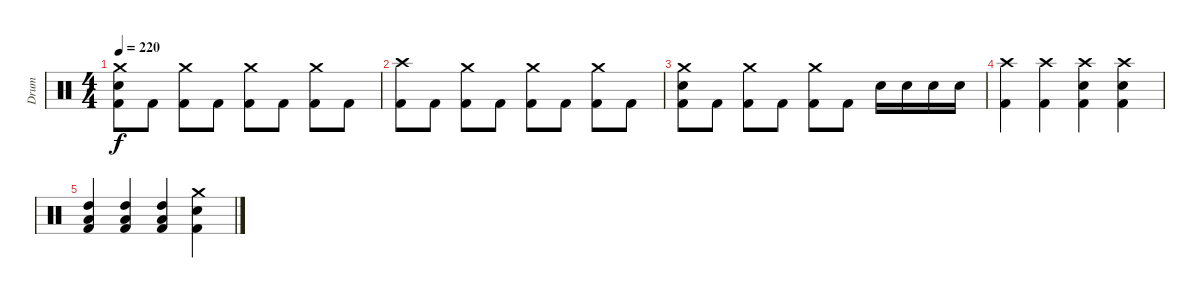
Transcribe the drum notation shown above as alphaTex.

\track ("Drum" "Drum") {instrument percussion}
\staff {score}
\articulation defaults
\ts (4 4)
\tempo 220
\clef neutral
\ks c
("Crash medium (hit)" "Electric Snare (hit)" "Kick (hit) 2").8{dy f} "Kick (hit) 2".8 ("Crash medium (hit)" "Kick (hit) 2").8 "Kick (hit) 2".8 ("Crash medium (hit)" "Kick (hit) 2").8 "Kick (hit) 2".8 ("Crash medium (hit)" "Kick (hit) 2").8 "Kick (hit) 2".8 |
("Crash high (hit)" "Kick (hit) 2").8 "Kick (hit) 2".8 ("Crash medium (hit)" "Kick (hit) 2").8 "Kick (hit) 2".8 ("Crash medium (hit)" "Kick (hit) 2").8 "Kick (hit) 2".8 ("Crash medium (hit)" "Kick (hit) 2").8 "Kick (hit) 2".8 |
("Crash medium (hit)" "Electric Snare (hit)" "Kick (hit) 2").8 "Kick (hit) 2".8 ("Crash medium (hit)" "Kick (hit) 2").8 "Kick (hit) 2".8 ("Crash medium (hit)" "Kick (hit) 2").8 "Kick (hit) 2".8 "Electric Snare (hit)".16 "Electric Snare (hit)".16 "Electric Snare (hit)".16 "Electric Snare (hit)".16 |
("Crash high (hit)" "Kick (hit) 2").4 ("Crash high (hit)" "Kick (hit) 2").4 ("Crash high (hit)" "Electric Snare (hit)" "Kick (hit) 2").4 ("Crash high (hit)" "Electric Snare (hit)" "Kick (hit) 2").4 |
("High Tom (hit)" "Low Floor Tom (hit)" "Kick (hit) 2").4 ("High Tom (hit)" "Low Floor Tom (hit)" "Kick (hit) 2").4 ("High Tom (hit)" "Low Floor Tom (hit)" "Kick (hit) 2").4 ("Crash medium (hit)" "Electric Snare (hit)" "Kick (hit) 2").4
